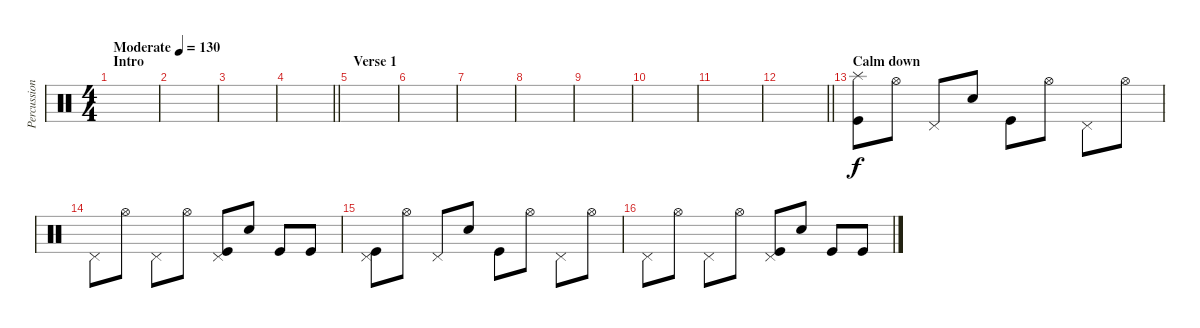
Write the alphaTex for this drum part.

\track ("Percussion" "Percussion") {instrument percussion}
\staff {score}
\articulation defaults
\ts (4 4)
\section ("" "Intro")
\tempo (130 "Moderate")
\clef neutral
\ks c
|
|
|
\barLineRight lightlight
|
\section ("" "Verse 1")
|
|
|
|
|
|
|
\barLineRight lightlight
|
\section ("" "Calm down")
("Splash (hit)" "Kick (hit)").8 "Hi-Hat (open)".8 "Pedal Hi-Hat (hit)".8 "Snare (hit) 2".8 "Kick (hit)".8 "Hi-Hat (open)".8 "Pedal Hi-Hat (hit)".8 "Hi-Hat (open)".8 |
"Pedal Hi-Hat (hit)".8 "Hi-Hat (open)".8 "Pedal Hi-Hat (hit)".8 "Hi-Hat (open)".8 ("Pedal Hi-Hat (hit)" "Kick (hit)").8 "Snare (hit) 2".8 "Kick (hit)".8 "Kick (hit)".8 |
("Pedal Hi-Hat (hit)" "Kick (hit)").8 "Hi-Hat (open)".8 "Pedal Hi-Hat (hit)".8 "Snare (hit) 2".8 "Kick (hit)".8 "Hi-Hat (open)".8 "Pedal Hi-Hat (hit)".8 "Hi-Hat (open)".8 |
"Pedal Hi-Hat (hit)".8 "Hi-Hat (open)".8 "Pedal Hi-Hat (hit)".8 "Hi-Hat (open)".8 ("Pedal Hi-Hat (hit)" "Kick (hit)").8 "Snare (hit) 2".8 "Kick (hit)".8 "Kick (hit)".8
